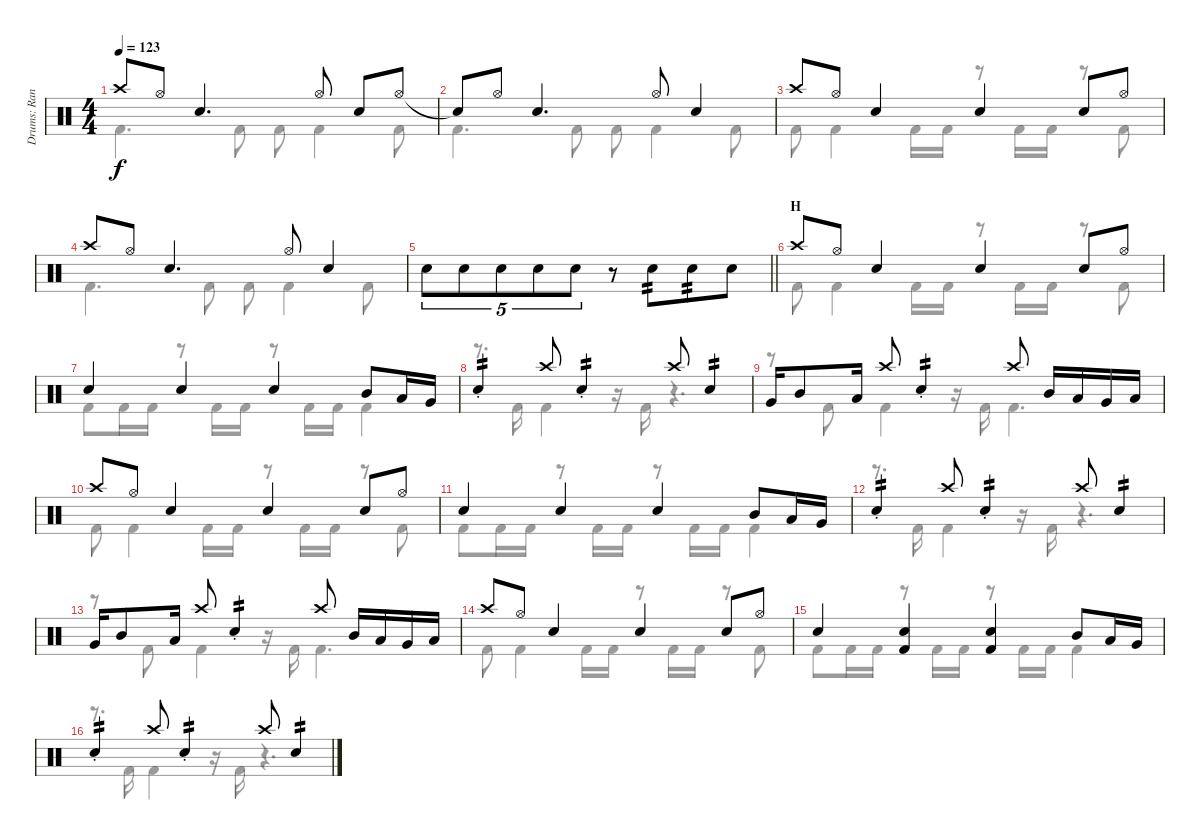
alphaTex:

\track ("Drums: Randy" "Drums: Ran") {instrument percussion}
\staff {score}
\articulation defaults
\voice
\ts (4 4)
\tempo 123
\clef neutral
\ks c "Crash high (hit)".8{dy f} "Hi-Hat (open)".8 "Snare (hit) 2".4{d} "Hi-Hat (open)".8 "Snare (hit) 2".8 "Hi-Hat (open)".8
|
"Snare (hit)"{t}.8 "Hi-Hat (open)".8 "Snare (hit) 2".4{d} "Hi-Hat (open)".8 "Snare (hit) 2".4 |
"Crash high (hit)".8 "Hi-Hat (open)".8 "Snare (hit) 2".4 "Snare (hit) 2".4 "Snare (hit) 2".8 "Hi-Hat (open)".8 |
"Crash high (hit)".8 "Hi-Hat (open)".8 "Snare (hit) 2".4{d} "Hi-Hat (open)".8 "Snare (hit) 2".4 |
\barLineRight lightlight "Snare (hit) 2".8{tu (5 4)} "Snare (hit) 2".8{tu (5 4)} "Snare (hit) 2".8{tu (5 4) beam merge} "Snare (hit) 2".8{tu (5 4)} "Snare (hit) 2".8{tu (5 4)}
r.8 "Snare (hit) 2".8{tp 2 beam merge} "Snare (hit) 2".8{tp 2} "Snare (hit) 2".8 |
\section ("" "H")
"Crash high (hit)".8 "Hi-Hat (open)".8 "Snare (hit) 2".4 "Snare (hit) 2".4 "Snare (hit) 2".8 "Hi-Hat (open)".8 |
"Snare (hit) 2".4 "Snare (hit) 2".4 "Snare (hit) 2".4 "Mid Tom (hit)".8 "Low Tom (hit)".16 "Very Low Tom (hit)".16 |
"Snare (hit) 2"{st}.4{tp 2} "Crash high (hit)".8 "Snare (hit) 2"{st}.4{tp 2} "Crash high (hit)".8 "Snare (hit) 2".4{tp 2} |
"Very Low Tom (hit)".16 "Mid Tom (hit)".8 "Low Tom (hit)".16 "Crash high (hit)".8 "Snare (hit) 2"{st}.4{tp 2} "Crash high (hit)".8 "Mid Tom (hit)".16 "Low Tom (hit)".16 "Very Low Tom (hit)".16 "Low Floor Tom (hit)".16 |
"Crash high (hit)".8 "Hi-Hat (open)".8 "Snare (hit) 2".4 "Snare (hit) 2".4 "Snare (hit) 2".8 "Hi-Hat (open)".8 |
"Snare (hit) 2".4 "Snare (hit) 2".4 "Snare (hit) 2".4 "Mid Tom (hit)".8 "Low Tom (hit)".16 "Very Low Tom (hit)".16 |
"Snare (hit) 2"{st}.4{tp 2} "Crash high (hit)".8 "Snare (hit) 2"{st}.4{tp 2} "Crash high (hit)".8 "Snare (hit) 2".4{tp 2} |
"Very Low Tom (hit)".16 "Mid Tom (hit)".8 "Low Tom (hit)".16 "Crash high (hit)".8 "Snare (hit) 2"{st}.4{tp 2} "Crash high (hit)".8 "Mid Tom (hit)".16 "Low Tom (hit)".16 "Very Low Tom (hit)".16 "Low Floor Tom (hit)".16 |
"Crash high (hit)".8 "Hi-Hat (open)".8 "Snare (hit) 2".4 "Snare (hit) 2".4 "Snare (hit) 2".8 "Hi-Hat (open)".8 |
"Snare (hit) 2".4 ("Snare (hit) 2" "Kick (hit) 2").4 ("Snare (hit) 2" "Kick (hit) 2").4 "Mid Tom (hit)".8 "Low Tom (hit)".16 "Very Low Tom (hit)".16 |
"Snare (hit) 2"{st}.4{tp 2} "Crash high (hit)".8 "Snare (hit) 2"{st}.4{tp 2} "Crash high (hit)".8 "Snare (hit) 2".4{tp 2}
\voice
\clef neutral
\ottava regular
\simile none
\ks c "Kick (hit) 2".4{d dy f} "Kick (hit) 2".8 "Kick (hit) 2".8 "Kick (hit) 2".4 "Kick (hit) 2".8
|
"Kick (hit) 2".4{d} "Kick (hit) 2".8 "Kick (hit) 2".8 "Kick (hit) 2".4 "Kick (hit) 2".8 |
"Kick (hit) 2".8 "Kick (hit) 2".4 "Kick (hit) 2".16 "Kick (hit) 2".16 r.8 "Kick (hit) 2".16 "Kick (hit) 2".16 r.8 "Kick (hit) 2".8 |
"Kick (hit) 2".4{d} "Kick (hit) 2".8 "Kick (hit) 2".8 "Kick (hit) 2".4 "Kick (hit) 2".8 |
\barLineRight lightlight
|
"Kick (hit) 2".8 "Kick (hit) 2".4 "Kick (hit) 2".16 "Kick (hit) 2".16 r.8 "Kick (hit) 2".16 "Kick (hit) 2".16 r.8 "Kick (hit) 2".8 |
"Kick (hit) 2".8 "Kick (hit) 2".16 "Kick (hit) 2".16 r.8 "Kick (hit) 2".16 "Kick (hit) 2".16 r.8 "Kick (hit) 2".16 "Kick (hit) 2".16 "Kick (hit) 2".4 |
r.8{d} "Kick (hit) 2".16 "Kick (hit) 2".4 r.16 "Kick (hit) 2".16 r.4{d} |
r.8 "Kick (hit) 2".8 "Kick (hit) 2".4 r.16 "Kick (hit) 2".16 "Kick (hit) 2".4{d} |
"Kick (hit) 2".8 "Kick (hit) 2".4 "Kick (hit) 2".16 "Kick (hit) 2".16 r.8 "Kick (hit) 2".16 "Kick (hit) 2".16 r.8 "Kick (hit) 2".8 |
"Kick (hit) 2".8 "Kick (hit) 2".16 "Kick (hit) 2".16 r.8 "Kick (hit) 2".16 "Kick (hit) 2".16 r.8 "Kick (hit) 2".16 "Kick (hit) 2".16 "Kick (hit) 2".4 |
r.8{d} "Kick (hit) 2".16 "Kick (hit) 2".4 r.16 "Kick (hit) 2".16 r.4{d} |
r.8 "Kick (hit) 2".8 "Kick (hit) 2".4 r.16 "Kick (hit) 2".16 "Kick (hit) 2".4{d} |
"Kick (hit) 2".8 "Kick (hit) 2".4 "Kick (hit) 2".16 "Kick (hit) 2".16 r.8 "Kick (hit) 2".16 "Kick (hit) 2".16 r.8 "Kick (hit) 2".8 |
"Kick (hit) 2".8 "Kick (hit) 2".16 "Kick (hit) 2".16 r.8 "Kick (hit) 2".16 "Kick (hit) 2".16 r.8 "Kick (hit) 2".16 "Kick (hit) 2".16 "Kick (hit) 2".4 |
r.8{d} "Kick (hit) 2".16 "Kick (hit) 2".4 r.16 "Kick (hit) 2".16 r.4{d}
